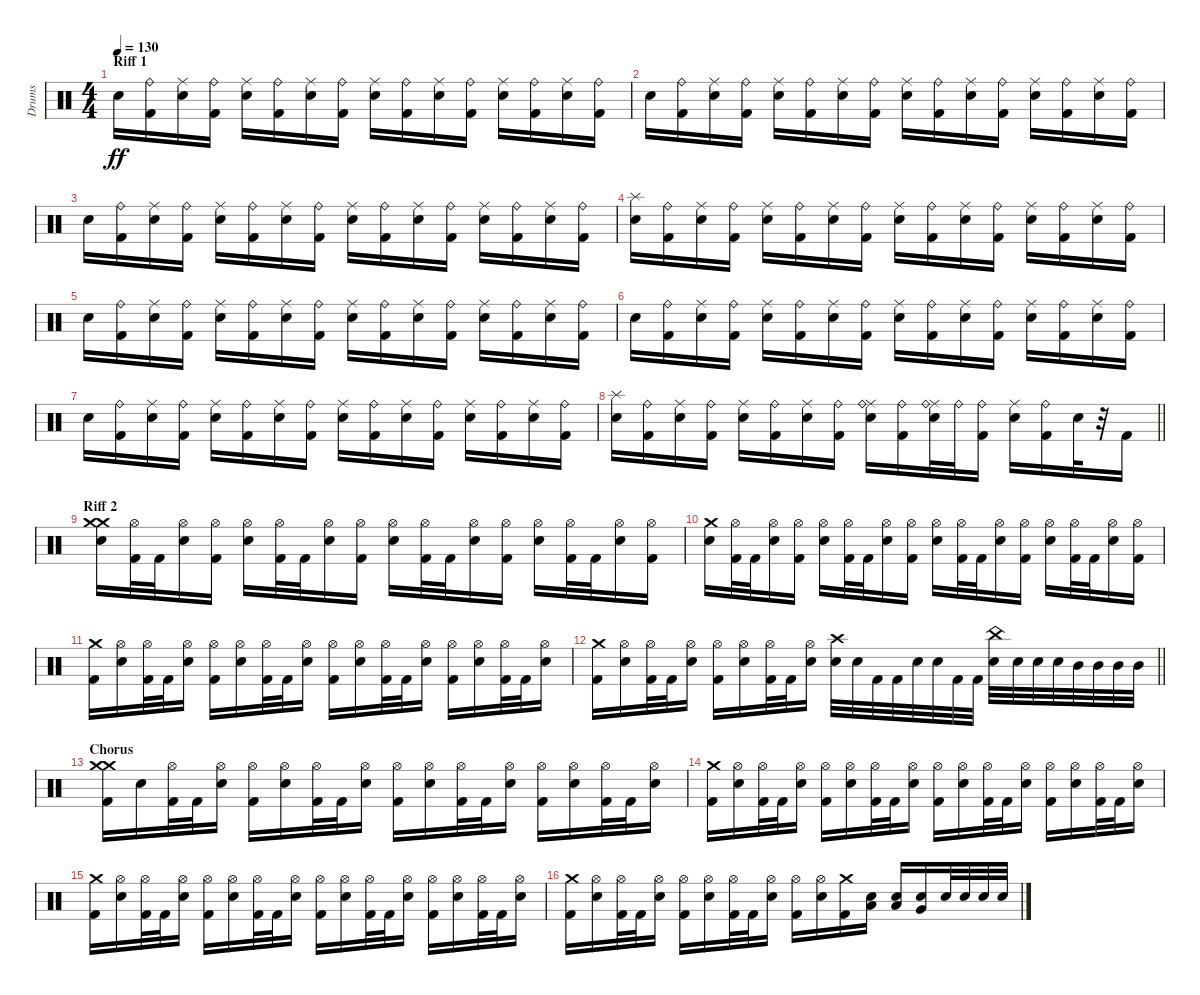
\track ("Drums" "Drums") {instrument percussion}
\staff {score}
\articulation defaults
\ts (4 4)
\section ("" "Riff 1")
\tempo 130
\clef neutral
\ks c "Snare (hit) 2".16{dy ff}
("Kick (hit) 2" "Ride (bell)").16 ("Snare (hit) 2" "Ride (middle)").16 ("Kick (hit) 2" "Ride (bell)").16 ("Snare (hit) 2" "Ride (middle)").16 ("Kick (hit) 2" "Ride (bell)").16 ("Snare (hit) 2" "Ride (middle)").16 ("Kick (hit) 2" "Ride (bell)").16 ("Snare (hit) 2" "Ride (middle)").16 ("Kick (hit) 2" "Ride (bell)").16 ("Snare (hit) 2" "Ride (middle)").16 ("Kick (hit) 2" "Ride (bell)").16 ("Snare (hit) 2" "Ride (middle)").16 ("Kick (hit) 2" "Ride (bell)").16 ("Snare (hit) 2" "Ride (middle)").16 ("Kick (hit) 2" "Ride (bell)").16 |
"Snare (hit) 2".16 ("Kick (hit) 2" "Ride (bell)").16 ("Snare (hit) 2" "Ride (middle)").16 ("Kick (hit) 2" "Ride (bell)").16 ("Snare (hit) 2" "Ride (middle)").16 ("Kick (hit) 2" "Ride (bell)").16 ("Snare (hit) 2" "Ride (middle)").16 ("Kick (hit) 2" "Ride (bell)").16 ("Snare (hit) 2" "Ride (middle)").16 ("Kick (hit) 2" "Ride (bell)").16 ("Snare (hit) 2" "Ride (middle)").16 ("Kick (hit) 2" "Ride (bell)").16 ("Snare (hit) 2" "Ride (middle)").16 ("Kick (hit) 2" "Ride (bell)").16 ("Snare (hit) 2" "Ride (middle)").16 ("Kick (hit) 2" "Ride (bell)").16 |
"Snare (hit) 2".16 ("Kick (hit) 2" "Ride (bell)").16 ("Snare (hit) 2" "Ride (middle)").16 ("Kick (hit) 2" "Ride (bell)").16 ("Snare (hit) 2" "Ride (middle)").16 ("Kick (hit) 2" "Ride (bell)").16 ("Snare (hit) 2" "Ride (middle)").16 ("Kick (hit) 2" "Ride (bell)").16 ("Snare (hit) 2" "Ride (middle)").16 ("Kick (hit) 2" "Ride (bell)").16 ("Snare (hit) 2" "Ride (middle)").16 ("Kick (hit) 2" "Ride (bell)").16 ("Snare (hit) 2" "Ride (middle)").16 ("Kick (hit) 2" "Ride (bell)").16 ("Snare (hit) 2" "Ride (middle)").16 ("Kick (hit) 2" "Ride (bell)").16 |
("Snare (hit) 2" "Splash (hit)").16 ("Kick (hit) 2" "Ride (bell)").16 ("Snare (hit) 2" "Ride (middle)").16 ("Kick (hit) 2" "Ride (bell)").16 ("Snare (hit) 2" "Ride (middle)").16 ("Kick (hit) 2" "Ride (bell)").16 ("Snare (hit) 2" "Ride (middle)").16 ("Kick (hit) 2" "Ride (bell)").16 ("Snare (hit) 2" "Ride (middle)").16 ("Kick (hit) 2" "Ride (bell)").16 ("Snare (hit) 2" "Ride (middle)").16 ("Kick (hit) 2" "Ride (bell)").16 ("Snare (hit) 2" "Ride (middle)").16 ("Kick (hit) 2" "Ride (bell)").16 ("Snare (hit) 2" "Ride (middle)").16 ("Kick (hit) 2" "Ride (bell)").16 |
"Snare (hit) 2".16 ("Kick (hit) 2" "Ride (bell)").16 ("Snare (hit) 2" "Ride (middle)").16 ("Kick (hit) 2" "Ride (bell)").16 ("Snare (hit) 2" "Ride (middle)").16 ("Kick (hit) 2" "Ride (bell)").16 ("Snare (hit) 2" "Ride (middle)").16 ("Kick (hit) 2" "Ride (bell)").16 ("Snare (hit) 2" "Ride (middle)").16 ("Kick (hit) 2" "Ride (bell)").16 ("Snare (hit) 2" "Ride (middle)").16 ("Kick (hit) 2" "Ride (bell)").16 ("Snare (hit) 2" "Ride (middle)").16 ("Kick (hit) 2" "Ride (bell)").16 ("Snare (hit) 2" "Ride (middle)").16 ("Kick (hit) 2" "Ride (bell)").16 |
"Snare (hit) 2".16 ("Kick (hit) 2" "Ride (bell)").16 ("Snare (hit) 2" "Ride (middle)").16 ("Kick (hit) 2" "Ride (bell)").16 ("Snare (hit) 2" "Ride (middle)").16 ("Kick (hit) 2" "Ride (bell)").16 ("Snare (hit) 2" "Ride (middle)").16 ("Kick (hit) 2" "Ride (bell)").16 ("Snare (hit) 2" "Ride (middle)").16 ("Kick (hit) 2" "Ride (bell)").16 ("Snare (hit) 2" "Ride (middle)").16 ("Kick (hit) 2" "Ride (bell)").16 ("Snare (hit) 2" "Ride (middle)").16 ("Kick (hit) 2" "Ride (bell)").16 ("Snare (hit) 2" "Ride (middle)").16 ("Kick (hit) 2" "Ride (bell)").16 |
"Snare (hit) 2".16 ("Kick (hit) 2" "Ride (bell)").16 ("Snare (hit) 2" "Ride (middle)").16 ("Kick (hit) 2" "Ride (bell)").16 ("Snare (hit) 2" "Ride (middle)").16 ("Kick (hit) 2" "Ride (bell)").16 ("Snare (hit) 2" "Ride (middle)").16 ("Kick (hit) 2" "Ride (bell)").16 ("Snare (hit) 2" "Ride (middle)").16 ("Kick (hit) 2" "Ride (bell)").16 ("Snare (hit) 2" "Ride (middle)").16 ("Kick (hit) 2" "Ride (bell)").16 ("Snare (hit) 2" "Ride (middle)").16 ("Kick (hit) 2" "Ride (bell)").16 ("Snare (hit) 2" "Ride (middle)").16 ("Kick (hit) 2" "Ride (bell)").16 |
\barLineRight lightlight
("Snare (hit) 2" "Splash (hit)").16 ("Kick (hit) 2" "Ride (bell)").16 ("Snare (hit) 2" "Ride (middle)").16 ("Kick (hit) 2" "Ride (bell)").16 ("Snare (hit) 2" "Ride (middle)").16 ("Kick (hit) 2" "Ride (bell)").16 ("Snare (hit) 2" "Ride (middle)").16 ("Kick (hit) 2" "Ride (bell)").16 ("Snare (hit) 2" "Ride (middle)" "Ride (bell)").16 ("Kick (hit) 2" "Ride (bell)").16 ("Snare (hit) 2" "Ride (middle)" "Ride (bell)").32 "Ride (bell)".32 ("Kick (hit) 2" "Ride (bell)").16 ("Snare (hit) 2" "Ride (middle)").16 ("Kick (hit) 2" "Ride (bell)").16 "Snare (hit) 2".32 r.32 "Kick (hit) 2".16 |
\section ("" "Riff 2")
("Crash medium (hit)" "Crash medium (hit)" "Snare (hit) 2").16 ("Hi-Hat (open)" "Kick (hit) 2").32 "Kick (hit) 2".32 ("Hi-Hat (open)" "Snare (hit) 2").16 ("Hi-Hat (open)" "Kick (hit) 2").16 ("Hi-Hat (open)" "Snare (hit) 2").16 ("Hi-Hat (open)" "Kick (hit) 2").32 "Kick (hit) 2".32 ("Hi-Hat (open)" "Snare (hit) 2").16 ("Hi-Hat (open)" "Kick (hit) 2").16 ("Hi-Hat (open)" "Snare (hit) 2").16 ("Hi-Hat (open)" "Kick (hit) 2").32 "Kick (hit) 2".32 ("Hi-Hat (open)" "Snare (hit) 2").16 ("Hi-Hat (open)" "Kick (hit) 2").16 ("Hi-Hat (open)" "Snare (hit) 2").16 ("Hi-Hat (open)" "Kick (hit) 2").32 "Kick (hit) 2".32 ("Hi-Hat (open)" "Snare (hit) 2").16 ("Hi-Hat (open)" "Kick (hit) 2").16 |
("Crash medium (hit)" "Snare (hit) 2").16 ("Hi-Hat (open)" "Kick (hit) 2").32 "Kick (hit) 2".32 ("Hi-Hat (open)" "Snare (hit) 2").16 ("Hi-Hat (open)" "Kick (hit) 2").16 ("Hi-Hat (open)" "Snare (hit) 2").16 ("Hi-Hat (open)" "Kick (hit) 2").32 "Kick (hit) 2".32 ("Hi-Hat (open)" "Snare (hit) 2").16 ("Hi-Hat (open)" "Kick (hit) 2").16 ("Hi-Hat (open)" "Snare (hit) 2").16 ("Hi-Hat (open)" "Kick (hit) 2").32 "Kick (hit) 2".32 ("Hi-Hat (open)" "Snare (hit) 2").16 ("Hi-Hat (open)" "Kick (hit) 2").16 ("Hi-Hat (open)" "Snare (hit) 2").16 ("Hi-Hat (open)" "Kick (hit) 2").32 "Kick (hit) 2".32 ("Hi-Hat (open)" "Snare (hit) 2").16 ("Hi-Hat (open)" "Kick (hit) 2").16 |
("Crash medium (hit)" "Kick (hit) 2").16 ("Hi-Hat (open)" "Snare (hit) 2").16 ("Hi-Hat (open)" "Kick (hit) 2").32 "Kick (hit) 2".32 ("Hi-Hat (open)" "Snare (hit) 2").16 ("Hi-Hat (open)" "Kick (hit) 2").16 ("Hi-Hat (open)" "Snare (hit) 2").16 ("Hi-Hat (open)" "Kick (hit) 2").32 "Kick (hit) 2".32 ("Hi-Hat (open)" "Snare (hit) 2").16 ("Hi-Hat (open)" "Kick (hit) 2").16 ("Hi-Hat (open)" "Snare (hit) 2").16 ("Hi-Hat (open)" "Kick (hit) 2").32 "Kick (hit) 2".32 ("Hi-Hat (open)" "Snare (hit) 2").16 ("Hi-Hat (open)" "Kick (hit) 2").16 ("Hi-Hat (open)" "Snare (hit) 2").16 ("Hi-Hat (open)" "Kick (hit) 2").32 "Kick (hit) 2".32 ("Hi-Hat (open)" "Snare (hit) 2").16 |
\barLineRight lightlight
("Crash medium (hit)" "Kick (hit) 2").16 ("Hi-Hat (open)" "Snare (hit) 2").16 ("Hi-Hat (open)" "Kick (hit) 2").32 "Kick (hit) 2".32 ("Hi-Hat (open)" "Snare (hit) 2").16 ("Hi-Hat (open)" "Kick (hit) 2").16 ("Hi-Hat (open)" "Snare (hit) 2").16 ("Hi-Hat (open)" "Kick (hit) 2").32 "Kick (hit) 2".32 ("Hi-Hat (open)" "Snare (hit) 2").16 ("Crash high (hit)" "Snare (hit) 2").32 "Snare (hit) 2".32 "Kick (hit) 2".32 "Kick (hit) 2".32 "Snare (hit) 2".32 "Snare (hit) 2".32 "Kick (hit) 2".32 "Kick (hit) 2".32 ("China (hit)" "Snare (hit) 2").32 "Snare (hit) 2".32 "Snare (hit) 2".32 "Snare (hit) 2".32 "Mid Tom (hit)".32 "Mid Tom (hit)".32 "Mid Tom (hit)".32 "Mid Tom (hit)".32 |
\section ("" "Chorus")
("Crash medium (hit)" "Crash medium (hit)" "Kick (hit) 2").16 "Snare (hit) 2".16 ("Hi-Hat (open)" "Kick (hit) 2").32 "Kick (hit) 2".32 ("Hi-Hat (open)" "Snare (hit) 2").16 ("Hi-Hat (open)" "Kick (hit) 2").16 ("Hi-Hat (open)" "Snare (hit) 2").16 ("Hi-Hat (open)" "Kick (hit) 2").32 "Kick (hit) 2".32 ("Hi-Hat (open)" "Snare (hit) 2").16 ("Hi-Hat (open)" "Kick (hit) 2").16 ("Hi-Hat (open)" "Snare (hit) 2").16 ("Hi-Hat (open)" "Kick (hit) 2").32 "Kick (hit) 2".32 ("Hi-Hat (open)" "Snare (hit) 2").16 ("Hi-Hat (open)" "Kick (hit) 2").16 ("Hi-Hat (open)" "Snare (hit) 2").16 ("Hi-Hat (open)" "Kick (hit) 2").32 "Kick (hit) 2".32 ("Hi-Hat (open)" "Snare (hit) 2").16 |
("Crash medium (hit)" "Kick (hit) 2").16 ("Hi-Hat (open)" "Snare (hit) 2").16 ("Hi-Hat (open)" "Kick (hit) 2").32 "Kick (hit) 2".32 ("Hi-Hat (open)" "Snare (hit) 2").16 ("Hi-Hat (open)" "Kick (hit) 2").16 ("Hi-Hat (open)" "Snare (hit) 2").16 ("Hi-Hat (open)" "Kick (hit) 2").32 "Kick (hit) 2".32 ("Hi-Hat (open)" "Snare (hit) 2").16 ("Hi-Hat (open)" "Kick (hit) 2").16 ("Hi-Hat (open)" "Snare (hit) 2").16 ("Hi-Hat (open)" "Kick (hit) 2").32 "Kick (hit) 2".32 ("Hi-Hat (open)" "Snare (hit) 2").16 ("Hi-Hat (open)" "Kick (hit) 2").16 ("Hi-Hat (open)" "Snare (hit) 2").16 ("Hi-Hat (open)" "Kick (hit) 2").32 "Kick (hit) 2".32 ("Hi-Hat (open)" "Snare (hit) 2").16 |
("Crash medium (hit)" "Kick (hit) 2").16 ("Hi-Hat (open)" "Snare (hit) 2").16 ("Hi-Hat (open)" "Kick (hit) 2").32 "Kick (hit) 2".32 ("Hi-Hat (open)" "Snare (hit) 2").16 ("Hi-Hat (open)" "Kick (hit) 2").16 ("Hi-Hat (open)" "Snare (hit) 2").16 ("Hi-Hat (open)" "Kick (hit) 2").32 "Kick (hit) 2".32 ("Hi-Hat (open)" "Snare (hit) 2").16 ("Hi-Hat (open)" "Kick (hit) 2").16 ("Hi-Hat (open)" "Snare (hit) 2").16 ("Hi-Hat (open)" "Kick (hit) 2").32 "Kick (hit) 2".32 ("Hi-Hat (open)" "Snare (hit) 2").16 ("Hi-Hat (open)" "Kick (hit) 2").16 ("Hi-Hat (open)" "Snare (hit) 2").16 ("Hi-Hat (open)" "Kick (hit) 2").32 "Kick (hit) 2".32 ("Hi-Hat (open)" "Snare (hit) 2").16 |
("Crash medium (hit)" "Kick (hit) 2").16 ("Hi-Hat (open)" "Snare (hit) 2").16 ("Hi-Hat (open)" "Kick (hit) 2").32 "Kick (hit) 2".32 ("Hi-Hat (open)" "Snare (hit) 2").16 ("Hi-Hat (open)" "Kick (hit) 2").16 ("Hi-Hat (open)" "Snare (hit) 2").16 ("Hi-Hat (open)" "Kick (hit) 2").32 "Kick (hit) 2".32 ("Hi-Hat (open)" "Snare (hit) 2").16 ("Hi-Hat (open)" "Kick (hit) 2").16 ("Hi-Hat (open)" "Snare (hit) 2").16 ("Crash medium (hit)" "Kick (hit) 2").16 ("Snare (hit) 2" "Low Tom (hit)").16 ("Snare (hit) 2" "Low Tom (hit)").16 ("Very Low Tom (hit)" "Snare (hit) 2").16 "Snare (hit) 2".32 "Snare (hit) 2".32 "Snare (hit) 2".32 "Snare (hit) 2".32
